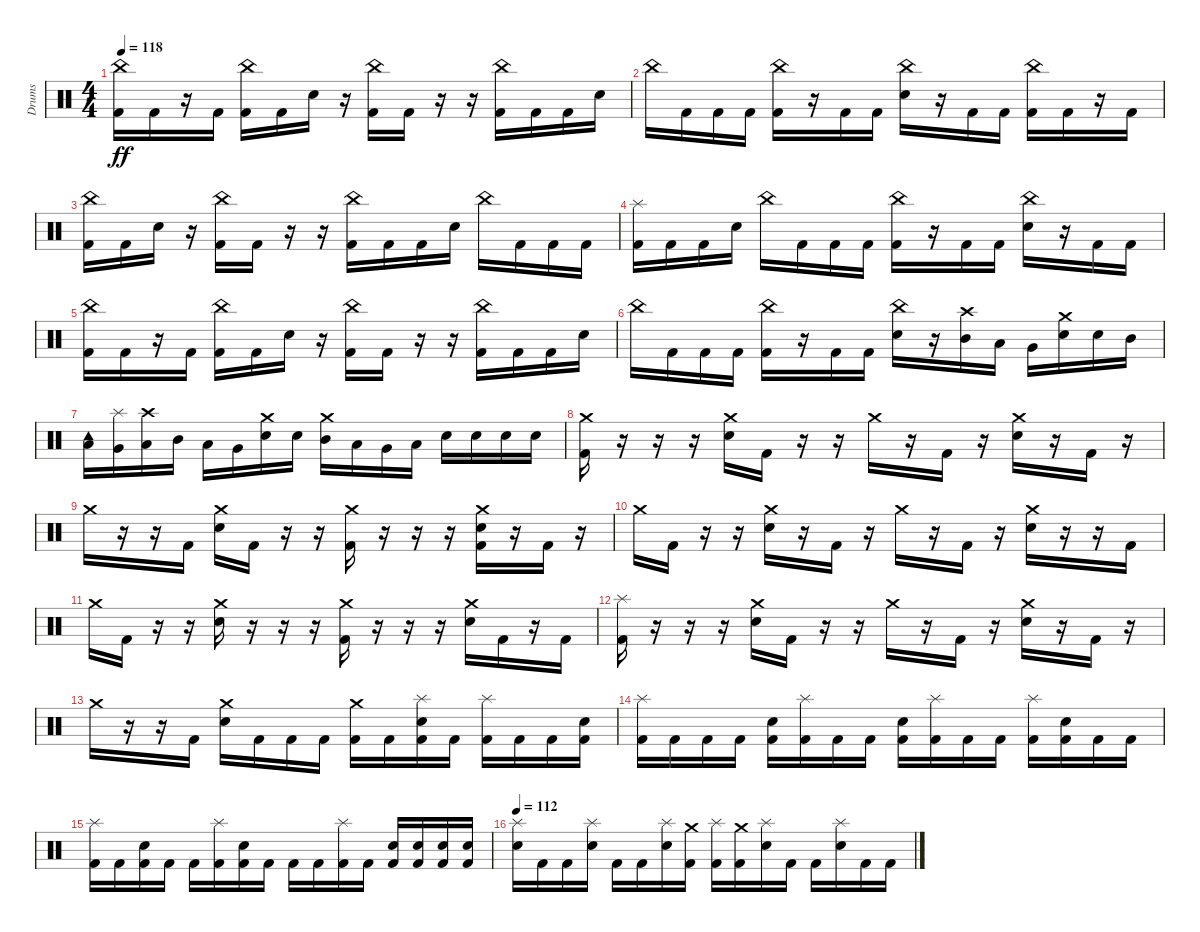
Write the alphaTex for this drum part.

\track ("Drums" "Drums") {instrument percussion}
\staff {score}
\articulation defaults
\ts (4 4)
\tempo 118
\clef neutral
\ks c
("China (hit)" "Kick (hit) 2").16{dy ff} "Kick (hit) 2".16 r.16 "Kick (hit) 2".16 ("China (hit)" "Kick (hit) 2").16 "Kick (hit) 2".16 "Electric Snare (hit)".16 r.16 ("China (hit)" "Kick (hit) 2").16 "Kick (hit) 2".16 r.16 r.16 ("China (hit)" "Kick (hit) 2").16 "Kick (hit) 2".16 "Kick (hit) 2".16 "Electric Snare (hit)".16 |
"China (hit)".16 "Kick (hit) 2".16 "Kick (hit) 2".16 "Kick (hit) 2".16 ("China (hit)" "Kick (hit) 2").16 r.16 "Kick (hit) 2".16 "Kick (hit) 2".16 ("China (hit)" "Electric Snare (hit)").16 r.16 "Kick (hit) 2".16 "Kick (hit) 2".16 ("China (hit)" "Kick (hit) 2").16 "Kick (hit) 2".16 r.16 "Kick (hit) 2".16 |
("China (hit)" "Kick (hit) 2").16 "Kick (hit) 2".16 "Electric Snare (hit)".16 r.16 ("China (hit)" "Kick (hit) 2").16 "Kick (hit) 2".16 r.16 r.16 ("China (hit)" "Kick (hit) 2").16 "Kick (hit) 2".16 "Kick (hit) 2".16 "Electric Snare (hit)".16 "China (hit)".16 "Kick (hit) 2".16 "Kick (hit) 2".16 "Kick (hit) 2".16 |
("Splash (hit)" "Kick (hit) 2").16 "Kick (hit) 2".16 "Kick (hit) 2".16 "Electric Snare (hit)".16 "China (hit)".16 "Kick (hit) 2".16 "Kick (hit) 2".16 "Kick (hit) 2".16 ("China (hit)" "Kick (hit) 2").16 r.16 "Kick (hit) 2".16 "Kick (hit) 2".16 ("China (hit)" "Electric Snare (hit)").16 r.16 "Kick (hit) 2".16 "Kick (hit) 2".16 |
("China (hit)" "Kick (hit) 2").16 "Kick (hit) 2".16 r.16 "Kick (hit) 2".16 ("China (hit)" "Kick (hit) 2").16 "Kick (hit) 2".16 "Electric Snare (hit)".16 r.16 ("China (hit)" "Kick (hit) 2").16 "Kick (hit) 2".16 r.16 r.16 ("China (hit)" "Kick (hit) 2").16 "Kick (hit) 2".16 "Kick (hit) 2".16 "Electric Snare (hit)".16 |
"China (hit)".16 "Kick (hit) 2".16 "Kick (hit) 2".16 "Kick (hit) 2".16 ("China (hit)" "Kick (hit) 2").16 r.16 "Kick (hit) 2".16 "Kick (hit) 2".16 ("China (hit)" "Electric Snare (hit)").16 r.16 ("Crash high (hit)" "Mid Tom (hit)").16 "Low Tom (hit)".16 "Very Low Tom (hit)".16 ("Crash medium (hit)" "Electric Snare (hit)").16 "Electric Snare (hit)".16 "Mid Tom (hit)".16 |
("Tambourine (hit)" "Low Tom (hit)").16 ("Splash (hit)" "Very Low Tom (hit)").16 ("Crash high (hit)" "Low Floor Tom (hit)").16 "Mid Tom (hit)".16 "Low Tom (hit)".16 "Very Low Tom (hit)".16 ("Crash medium (hit)" "Electric Snare (hit)").16 "Electric Snare (hit)".16 ("Crash medium (hit)" "Mid Tom (hit)").16 "Low Tom (hit)".16 "Very Low Tom (hit)".16 "Low Floor Tom (hit)".16 "Electric Snare (hit)".16 "Electric Snare (hit)".16 "Electric Snare (hit)".16 "Electric Snare (hit)".16 |
\section ("" "")
("Crash medium (hit)" "Kick (hit) 2").16 r.16 r.16 r.16 ("Crash medium (hit)" "Electric Snare (hit)").16 "Kick (hit) 2".16 r.16 r.16 "Crash medium (hit)".16 r.16 "Kick (hit) 2".16 r.16 ("Crash medium (hit)" "Electric Snare (hit)").16 r.16 "Kick (hit) 2".16 r.16 |
"Crash medium (hit)".16 r.16 r.16 "Kick (hit) 2".16 ("Crash medium (hit)" "Electric Snare (hit)").16 "Kick (hit) 2".16 r.16 r.16 ("Crash medium (hit)" "Kick (hit) 2").16 r.16 r.16 r.16 ("Crash medium (hit)" "Electric Snare (hit)" "Kick (hit) 2").16 r.16 "Kick (hit) 2".16 r.16 |
"Crash medium (hit)".16 "Kick (hit) 2".16 r.16 r.16 ("Crash medium (hit)" "Electric Snare (hit)").16 r.16 "Kick (hit) 2".16 r.16 "Crash medium (hit)".16 r.16 "Kick (hit) 2".16 r.16 ("Crash medium (hit)" "Electric Snare (hit)").16 r.16 r.16 "Kick (hit) 2".16 |
"Crash medium (hit)".16 "Kick (hit) 2".16 r.16 r.16 ("Crash medium (hit)" "Electric Snare (hit)").16 r.16 r.16 r.16 ("Crash medium (hit)" "Kick (hit) 2").16 r.16 r.16 r.16 ("Crash medium (hit)" "Electric Snare (hit)").16 "Kick (hit) 2".16 r.16 "Kick (hit) 2".16 |
("Splash (hit)" "Kick (hit) 2").16 r.16 r.16 r.16 ("Crash medium (hit)" "Electric Snare (hit)").16 "Kick (hit) 2".16 r.16 r.16 "Crash medium (hit)".16 r.16 "Kick (hit) 2".16 r.16 ("Crash medium (hit)" "Electric Snare (hit)").16 r.16 "Kick (hit) 2".16 r.16 |
"Crash medium (hit)".16 r.16 r.16 "Kick (hit) 2".16 ("Crash medium (hit)" "Electric Snare (hit)").16 "Kick (hit) 2".16 "Kick (hit) 2".16 "Kick (hit) 2".16 ("Crash medium (hit)" "Kick (hit) 2").16 "Kick (hit) 2".16 ("Splash (hit)" "Electric Snare (hit)" "Kick (hit) 2").16 "Kick (hit) 2".16 ("Splash (hit)" "Kick (hit) 2").16 "Kick (hit) 2".16 "Kick (hit) 2".16 ("Electric Snare (hit)" "Kick (hit) 2").16 |
("Splash (hit)" "Kick (hit) 2").16 "Kick (hit) 2".16 "Kick (hit) 2".16 "Kick (hit) 2".16 ("Electric Snare (hit)" "Kick (hit) 2").16 ("Splash (hit)" "Kick (hit) 2").16 "Kick (hit) 2".16 "Kick (hit) 2".16 ("Electric Snare (hit)" "Kick (hit) 2").16 ("Splash (hit)" "Kick (hit) 2").16 "Kick (hit) 2".16 "Kick (hit) 2".16 ("Splash (hit)" "Kick (hit) 2").16 ("Electric Snare (hit)" "Kick (hit) 2").16 "Kick (hit) 2".16 "Kick (hit) 2".16 |
("Splash (hit)" "Kick (hit) 2").16 "Kick (hit) 2".16 ("Electric Snare (hit)" "Kick (hit) 2").16 "Kick (hit) 2".16 "Kick (hit) 2".16 ("Splash (hit)" "Kick (hit) 2").16 ("Electric Snare (hit)" "Kick (hit) 2").16 "Kick (hit) 2".16 "Kick (hit) 2".16 "Kick (hit) 2".16 ("Splash (hit)" "Kick (hit) 2").16 "Kick (hit) 2".16 ("Electric Snare (hit)" "Kick (hit) 2").16 ("Electric Snare (hit)" "Kick (hit) 2").16 ("Electric Snare (hit)" "Kick (hit) 2").16 ("Electric Snare (hit)" "Kick (hit) 2").16 |
\tempo 112
("Splash (hit)" "Electric Snare (hit)").16 "Kick (hit) 2".16 "Kick (hit) 2".16 ("Splash (hit)" "Electric Snare (hit)").16 "Kick (hit) 2".16 "Kick (hit) 2".16 ("Splash (hit)" "Electric Snare (hit)").16 ("Crash medium (hit)" "Kick (hit) 2").16 ("Splash (hit)" "Kick (hit) 2").16 ("Crash medium (hit)" "Kick (hit) 2").16 ("Splash (hit)" "Electric Snare (hit)").16 "Kick (hit) 2".16 "Kick (hit) 2".16 ("Splash (hit)" "Electric Snare (hit)").16 "Kick (hit) 2".16 "Kick (hit) 2".16
